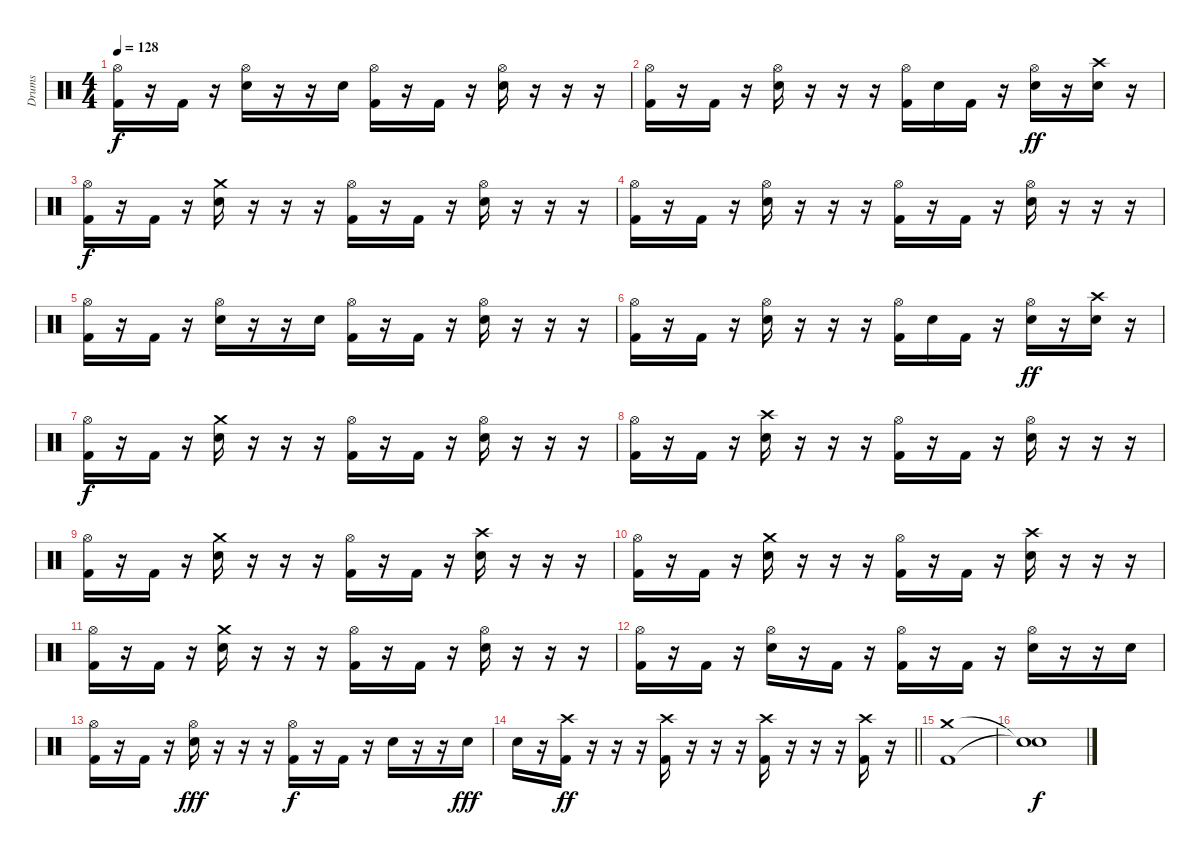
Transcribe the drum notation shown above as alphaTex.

\track ("Drums" "Drums") {instrument percussion}
\staff {score}
\articulation defaults
\ts (4 4)
\tempo 128
\clef neutral
\ks c
("Hi-Hat (open)" "Kick (hit) 2").16{dy f} r.16 "Kick (hit) 2".16 r.16 ("Hi-Hat (open)" "Electric Snare (hit)").16 r.16 r.16 "Electric Snare (hit)".16 ("Hi-Hat (open)" "Kick (hit) 2").16 r.16 "Kick (hit) 2".16 r.16 ("Hi-Hat (open)" "Electric Snare (hit)").16 r.16 r.16 r.16 |
("Hi-Hat (open)" "Kick (hit) 2").16 r.16 "Kick (hit) 2".16 r.16 ("Hi-Hat (open)" "Electric Snare (hit)").16 r.16 r.16 r.16 ("Hi-Hat (open)" "Kick (hit) 2").16 "Electric Snare (hit)".16 "Kick (hit) 2".16 r.16 ("Hi-Hat (open)" "Electric Snare (hit)").16{dy ff} r.16 ("Crash high (hit)" "Electric Snare (hit)").16 r.16 |
("Hi-Hat (open)" "Kick (hit) 2").16{dy f} r.16 "Kick (hit) 2".16 r.16 ("Crash medium (hit)" "Electric Snare (hit)").16 r.16 r.16 r.16 ("Hi-Hat (open)" "Kick (hit) 2").16 r.16 "Kick (hit) 2".16 r.16 ("Hi-Hat (open)" "Electric Snare (hit)").16 r.16 r.16 r.16 |
("Hi-Hat (open)" "Kick (hit) 2").16 r.16 "Kick (hit) 2".16 r.16 ("Hi-Hat (open)" "Electric Snare (hit)").16 r.16 r.16 r.16 ("Hi-Hat (open)" "Kick (hit) 2").16 r.16 "Kick (hit) 2".16 r.16 ("Hi-Hat (open)" "Electric Snare (hit)").16 r.16 r.16 r.16 |
("Hi-Hat (open)" "Kick (hit) 2").16 r.16 "Kick (hit) 2".16 r.16 ("Hi-Hat (open)" "Electric Snare (hit)").16 r.16 r.16 "Electric Snare (hit)".16 ("Hi-Hat (open)" "Kick (hit) 2").16 r.16 "Kick (hit) 2".16 r.16 ("Hi-Hat (open)" "Electric Snare (hit)").16 r.16 r.16 r.16 |
("Hi-Hat (open)" "Kick (hit) 2").16 r.16 "Kick (hit) 2".16 r.16 ("Hi-Hat (open)" "Electric Snare (hit)").16 r.16 r.16 r.16 ("Hi-Hat (open)" "Kick (hit) 2").16 "Electric Snare (hit)".16 "Kick (hit) 2".16 r.16 ("Hi-Hat (open)" "Electric Snare (hit)").16{dy ff} r.16 ("Crash high (hit)" "Electric Snare (hit)").16 r.16 |
("Hi-Hat (open)" "Kick (hit) 2").16{dy f} r.16 "Kick (hit) 2".16 r.16 ("Crash medium (hit)" "Electric Snare (hit)").16 r.16 r.16 r.16 ("Hi-Hat (open)" "Kick (hit) 2").16 r.16 "Kick (hit) 2".16 r.16 ("Hi-Hat (open)" "Electric Snare (hit)").16 r.16 r.16 r.16 |
("Hi-Hat (open)" "Kick (hit) 2").16 r.16 "Kick (hit) 2".16 r.16 ("Crash high (hit)" "Electric Snare (hit)").16 r.16 r.16 r.16 ("Hi-Hat (open)" "Kick (hit) 2").16 r.16 "Kick (hit) 2".16 r.16 ("Hi-Hat (open)" "Electric Snare (hit)").16 r.16 r.16 r.16 |
("Hi-Hat (open)" "Kick (hit) 2").16 r.16 "Kick (hit) 2".16 r.16 ("Crash medium (hit)" "Electric Snare (hit)").16 r.16 r.16 r.16 ("Hi-Hat (open)" "Kick (hit) 2").16 r.16 "Kick (hit) 2".16 r.16 ("Crash high (hit)" "Electric Snare (hit)").16 r.16 r.16 r.16 |
("Hi-Hat (open)" "Kick (hit) 2").16 r.16 "Kick (hit) 2".16 r.16 ("Crash medium (hit)" "Electric Snare (hit)").16 r.16 r.16 r.16 ("Hi-Hat (open)" "Kick (hit) 2").16 r.16 "Kick (hit) 2".16 r.16 ("Crash high (hit)" "Electric Snare (hit)").16 r.16 r.16 r.16 |
("Hi-Hat (open)" "Kick (hit) 2").16 r.16 "Kick (hit) 2".16 r.16 ("Crash medium (hit)" "Electric Snare (hit)").16 r.16 r.16 r.16 ("Hi-Hat (open)" "Kick (hit) 2").16 r.16 "Kick (hit) 2".16 r.16 ("Hi-Hat (open)" "Electric Snare (hit)").16 r.16 r.16 r.16 |
("Hi-Hat (open)" "Kick (hit) 2").16 r.16 "Kick (hit) 2".16 r.16 ("Hi-Hat (open)" "Electric Snare (hit)").16 r.16 "Kick (hit) 2".16 r.16 ("Hi-Hat (open)" "Kick (hit) 2").16 r.16 "Kick (hit) 2".16 r.16 ("Hi-Hat (open)" "Electric Snare (hit)").16 r.16 r.16 "Electric Snare (hit)".16 |
("Hi-Hat (open)" "Kick (hit) 2").16 r.16 "Kick (hit) 2".16 r.16 ("Hi-Hat (open)" "Electric Snare (hit)").16{dy fff} r.16 r.16 r.16 ("Hi-Hat (open)" "Kick (hit) 2").16{dy f} r.16 "Kick (hit) 2".16 r.16 "Electric Snare (hit)".16 r.16 r.16 "Electric Snare (hit)".16{dy fff} |
\barLineRight lightlight "Electric Snare (hit)".16
r.16 ("Crash high (hit)" "Kick (hit) 2").16{dy ff} r.16 r.16{volume 1} r.16 ("Crash high (hit)" "Kick (hit) 2").16{volume 13} r.16 r.16{volume 0} r.16 ("Crash high (hit)" "Kick (hit) 2").16{volume 13} r.16 r.16{volume 0} r.16 ("Crash high (hit)" "Kick (hit) 2").16{volume 13} r.16 |
("Crash medium (hit)" "Kick (hit) 2").1 |
("Snare (hit)"{t} "Snare (hit)"{t}).1{dy f}
